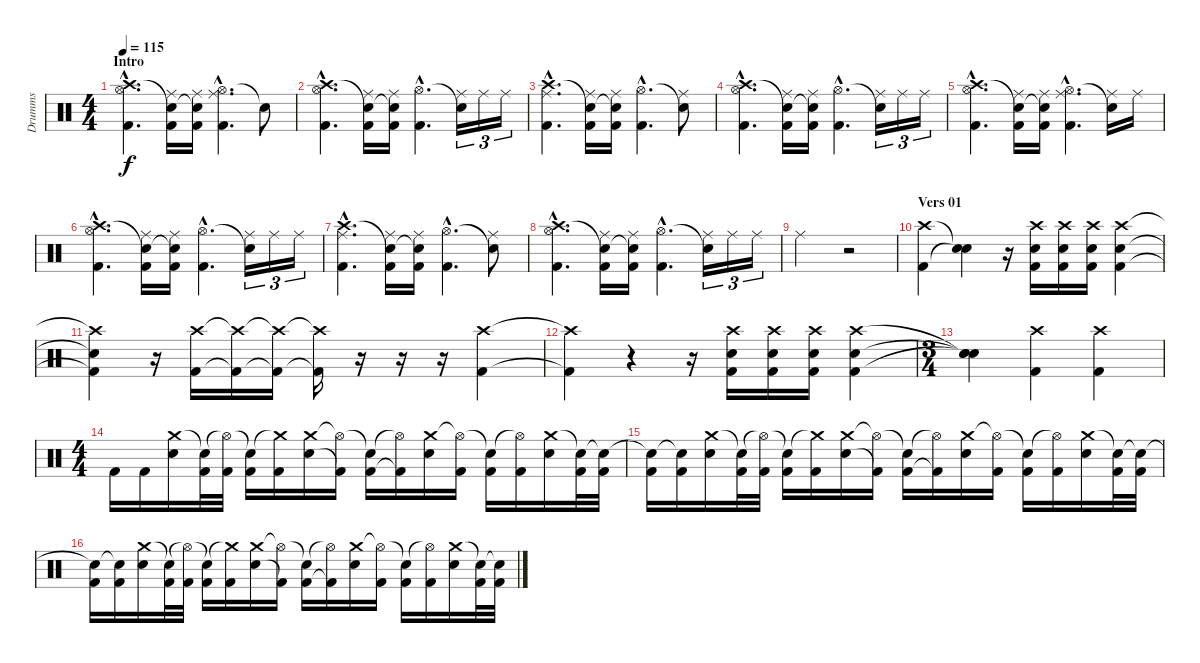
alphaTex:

\track ("Drumms" "Drumms") {instrument percussion}
\staff {score}
\articulation defaults
\ts (4 4)
\section ("" "Intro")
\tempo 115
\clef neutral
\ks c
("Crash high (hit)"{hac} "Hi-Hat (open)"{hac} "Kick (hit) 2"{hac}).4{d dy f} ("Snare (hit)"{t} "Kick (hit) 2" "Ride (middle)").16 ("Snare (hit)"{t} "Kick (hit) 2" "Ride (middle)").16 ("Hi-Hat (open)"{hac} "Kick (hit) 2"{hac} "Ride (middle)"{hac}).4{d} "Snare (hit)"{t}.8 |
("Crash high (hit)"{hac} "Hi-Hat (open)"{hac} "Kick (hit) 2"{hac}).4{d} ("Snare (hit)"{t} "Kick (hit) 2" "Ride (middle)").16 ("Snare (hit)"{t} "Kick (hit) 2" "Ride (middle)").16 ("Hi-Hat (open)"{hac} "Kick (hit) 2"{hac}).4{d} ("Snare (hit)"{t} "Ride (middle)").16{tu (3 2)} "Ride (middle)".16{tu (3 2)} "Ride (middle)".16{tu (3 2)} |
("Crash high (hit)"{hac} "Ride (middle)"{hac} "Kick (hit) 2"{hac}).4{d} ("Snare (hit)"{t} "Kick (hit) 2" "Ride (middle)").16 ("Snare (hit)"{t} "Kick (hit) 2" "Ride (middle)").16 ("Hi-Hat (open)"{hac} "Kick (hit) 2"{hac}).4{d} ("Snare (hit)"{t} "Ride (middle)").8 |
("Crash high (hit)"{hac} "Hi-Hat (open)"{hac} "Kick (hit) 2"{hac}).4{d} ("Snare (hit)"{t} "Kick (hit) 2" "Ride (middle)").16 ("Snare (hit)"{t} "Kick (hit) 2" "Ride (middle)").16 ("Hi-Hat (open)"{hac} "Kick (hit) 2"{hac}).4{d} ("Snare (hit)"{t} "Ride (middle)").16{tu (3 2)} "Ride (middle)".16{tu (3 2)} "Ride (middle)".16{tu (3 2)} |
("Crash high (hit)"{hac} "Hi-Hat (open)"{hac} "Kick (hit) 2"{hac}).4{d} ("Snare (hit)"{t} "Kick (hit) 2" "Ride (middle)").16 ("Snare (hit)"{t} "Kick (hit) 2" "Ride (middle)").16 ("Hi-Hat (open)"{hac} "Kick (hit) 2"{hac} "Ride (middle)"{hac}).4{d} ("Snare (hit)"{t} "Ride (middle)").16 "Ride (middle)".16 |
("Crash high (hit)"{hac} "Hi-Hat (open)"{hac} "Kick (hit) 2"{hac}).4{d} ("Snare (hit)"{t} "Kick (hit) 2" "Ride (middle)").16 ("Snare (hit)"{t} "Kick (hit) 2" "Ride (middle)").16 ("Hi-Hat (open)"{hac} "Kick (hit) 2"{hac}).4{d} ("Snare (hit)"{t} "Ride (middle)").16{tu (3 2)} "Ride (middle)".16{tu (3 2)} "Ride (middle)".16{tu (3 2)} |
("Crash high (hit)"{hac} "Ride (middle)"{hac} "Kick (hit) 2"{hac}).4{d} ("Snare (hit)"{t} "Kick (hit) 2" "Ride (middle)").16 ("Snare (hit)"{t} "Kick (hit) 2" "Ride (middle)").16 ("Hi-Hat (open)"{hac} "Kick (hit) 2"{hac}).4{d} ("Snare (hit)"{t} "Ride (middle)").8 |
("Crash high (hit)"{hac} "Hi-Hat (open)"{hac} "Kick (hit) 2"{hac}).4{d} ("Snare (hit)"{t} "Kick (hit) 2" "Ride (middle)").16 ("Snare (hit)"{t} "Kick (hit) 2" "Ride (middle)").16 ("Hi-Hat (open)"{hac} "Kick (hit) 2"{hac}).4{d} ("Snare (hit)"{t} "Ride (middle)").16{tu (3 2)} "Ride (middle)".16{tu (3 2)} "Ride (middle)".16{tu (3 2)} |
"Ride (middle)".2 r.2 |
\section ("" "Vers 01")
("Crash high (hit)" "Kick (hit) 2").4 ("Snare (hit)"{t} "Snare (hit)"{t}).4 r.16 ("Crash high (hit)" "Kick (hit) 2" "Snare (hit) 2").16 ("Crash high (hit)" "Kick (hit) 2" "Snare (hit) 2").16 ("Crash high (hit)" "Kick (hit) 2" "Snare (hit) 2").16 ("Crash high (hit)" "Kick (hit) 2" "Snare (hit) 2").4 |
("Crash high (hit)"{t} "Kick (hit) 2"{t} "Snare (hit)"{t}).4 r.16 ("Crash high (hit)" "Kick (hit) 2").16 ("Crash high (hit)"{t} "Kick (hit) 2"{t}).16 ("Crash high (hit)"{t} "Kick (hit) 2"{t}).16 ("Crash high (hit)"{t} "Kick (hit) 2"{t}).16 r.16 r.16 r.16 ("Crash high (hit)" "Kick (hit) 2").4 |
("Crash high (hit)"{t} "Kick (hit) 2"{t}).4 r.4 r.16 ("Crash high (hit)" "Kick (hit) 2" "Snare (hit) 2").16 ("Crash high (hit)" "Kick (hit) 2" "Snare (hit) 2").16 ("Crash high (hit)" "Kick (hit) 2" "Snare (hit) 2").16 ("Crash high (hit)" "Kick (hit) 2" "Snare (hit) 2").4 |
\ts (3 4)
("Snare (hit)"{t} "Snare (hit)"{t} "Snare (hit)"{t}).4 ("Crash high (hit)" "Kick (hit) 2").4 ("Crash high (hit)" "Kick (hit) 2").4 |
\ts (4 4)
"Kick (hit) 2".16 "Kick (hit) 2".16 ("Crash medium (hit)" "Electric Snare (hit)").16 ("Snare (hit)"{t} "Kick (hit) 2").32 ("Hi-Hat (open)"{t} "Kick (hit) 2").32 ("Snare (hit)"{t} "Kick (hit) 2").16 ("Crash medium (hit)"{t} "Kick (hit) 2").16 ("Crash medium (hit)" "Electric Snare (hit)").16 ("Hi-Hat (open)"{t} "Kick (hit) 2"{t}).16 ("Snare (hit)"{t} "Kick (hit) 2").16 ("Hi-Hat (open)"{t} "Kick (hit) 2"{t}).16 ("Crash medium (hit)" "Electric Snare (hit)").16 ("Hi-Hat (open)"{t} "Kick (hit) 2").16 ("Snare (hit)"{t} "Kick (hit) 2").16 ("Hi-Hat (open)"{t} "Kick (hit) 2").16 ("Crash medium (hit)" "Electric Snare (hit)").16 ("Snare (hit)"{t} "Kick (hit) 2").32 ("Snare (hit)"{t} "Kick (hit) 2").32 |
("Snare (hit)"{t} "Kick (hit) 2").16 ("Snare (hit)"{t} "Kick (hit) 2").16 ("Crash medium (hit)" "Electric Snare (hit)").16 ("Snare (hit)"{t} "Kick (hit) 2").32 ("Hi-Hat (open)"{t} "Kick (hit) 2").32 ("Snare (hit)"{t} "Kick (hit) 2").16 ("Crash medium (hit)"{t} "Kick (hit) 2").16 ("Crash medium (hit)" "Electric Snare (hit)").16 ("Hi-Hat (open)"{t} "Kick (hit) 2"{t}).16 ("Snare (hit)"{t} "Kick (hit) 2").16 ("Hi-Hat (open)"{t} "Kick (hit) 2"{t}).16 ("Crash medium (hit)" "Electric Snare (hit)").16 ("Hi-Hat (open)"{t} "Kick (hit) 2").16 ("Snare (hit)"{t} "Kick (hit) 2").16 ("Hi-Hat (open)"{t} "Kick (hit) 2").16 ("Crash medium (hit)" "Electric Snare (hit)").16 ("Snare (hit)"{t} "Kick (hit) 2").32 ("Snare (hit)"{t} "Kick (hit) 2").32 |
("Snare (hit)"{t} "Kick (hit) 2").16 ("Snare (hit)"{t} "Kick (hit) 2").16 ("Crash medium (hit)" "Electric Snare (hit)").16 ("Snare (hit)"{t} "Kick (hit) 2").32 ("Hi-Hat (open)"{t} "Kick (hit) 2").32 ("Snare (hit)"{t} "Kick (hit) 2").16 ("Crash medium (hit)"{t} "Kick (hit) 2").16 ("Crash medium (hit)" "Electric Snare (hit)").16 ("Hi-Hat (open)"{t} "Kick (hit) 2"{t}).16 ("Snare (hit)"{t} "Kick (hit) 2").16 ("Hi-Hat (open)"{t} "Kick (hit) 2"{t}).16 ("Crash medium (hit)" "Electric Snare (hit)").16 ("Hi-Hat (open)"{t} "Kick (hit) 2").16 ("Snare (hit)"{t} "Kick (hit) 2").16 ("Hi-Hat (open)"{t} "Kick (hit) 2").16 ("Crash medium (hit)" "Electric Snare (hit)").16 ("Snare (hit)"{t} "Kick (hit) 2").32 ("Snare (hit)"{t} "Kick (hit) 2").32
